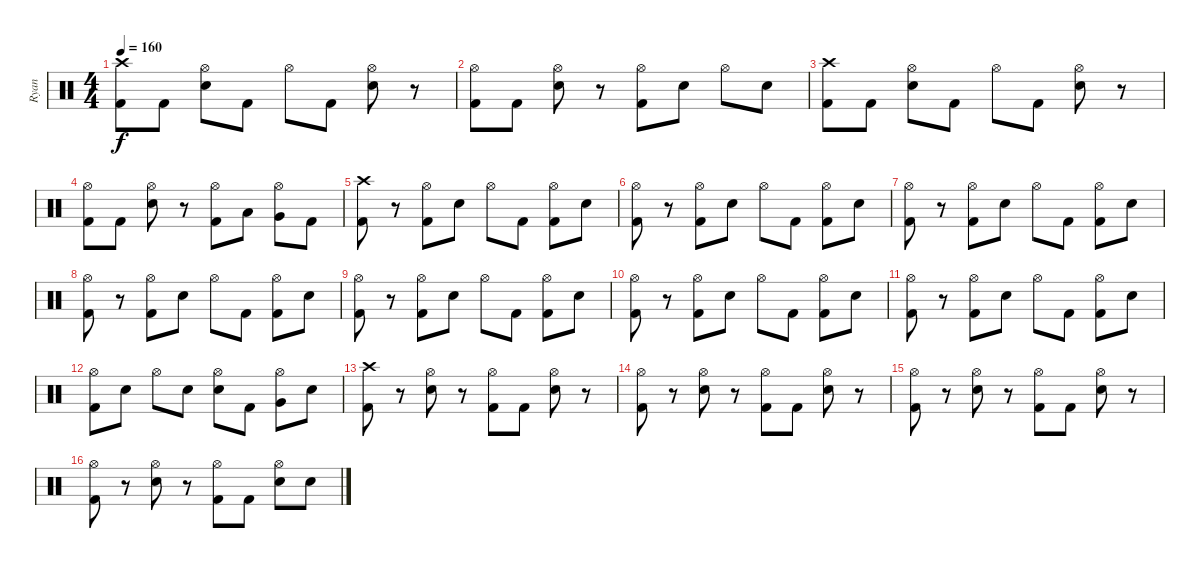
\track ("Ryan" "Ryan") {instrument percussion}
\staff {score}
\articulation defaults
\ts (4 4)
\tempo 160
\clef neutral
\ks c
("Crash high (hit)" "Kick (hit) 2").8{dy f} "Kick (hit) 2".8 ("Hi-Hat (open)" "Snare (hit) 2").8 "Kick (hit) 2".8 "Hi-Hat (open)".8 "Kick (hit) 2".8 ("Hi-Hat (open)" "Snare (hit) 2").8 r.8 |
("Hi-Hat (open)" "Kick (hit) 2").8 "Kick (hit) 2".8 ("Hi-Hat (open)" "Snare (hit) 2").8 r.8 ("Hi-Hat (open)" "Kick (hit) 2").8 "Snare (hit) 2".8 "Hi-Hat (open)".8 "Snare (hit) 2".8 |
("Crash high (hit)" "Kick (hit) 2").8 "Kick (hit) 2".8 ("Hi-Hat (open)" "Snare (hit) 2").8 "Kick (hit) 2".8 "Hi-Hat (open)".8 "Kick (hit) 2".8 ("Hi-Hat (open)" "Snare (hit) 2").8 r.8 |
("Hi-Hat (open)" "Kick (hit) 2").8 "Kick (hit) 2".8 ("Hi-Hat (open)" "Snare (hit) 2").8 r.8 ("Hi-Hat (open)" "Kick (hit) 2").8 "Low Tom (hit)".8 ("Hi-Hat (open)" "Very Low Tom (hit)").8 "Kick (hit) 2".8 |
("Crash high (hit)" "Kick (hit) 2").8 r.8 ("Hi-Hat (open)" "Kick (hit) 2").8 "Snare (hit) 2".8 "Hi-Hat (open)".8 "Kick (hit) 2".8 ("Hi-Hat (open)" "Kick (hit) 2").8 "Snare (hit) 2".8 |
("Hi-Hat (open)" "Kick (hit) 2").8 r.8 ("Hi-Hat (open)" "Kick (hit) 2").8 "Snare (hit) 2".8 "Hi-Hat (open)".8 "Kick (hit) 2".8 ("Hi-Hat (open)" "Kick (hit) 2").8 "Snare (hit) 2".8 |
("Hi-Hat (open)" "Kick (hit) 2").8 r.8 ("Hi-Hat (open)" "Kick (hit) 2").8 "Snare (hit) 2".8 "Hi-Hat (open)".8 "Kick (hit) 2".8 ("Hi-Hat (open)" "Kick (hit) 2").8 "Snare (hit) 2".8 |
("Hi-Hat (open)" "Kick (hit) 2").8 r.8 ("Hi-Hat (open)" "Kick (hit) 2").8 "Snare (hit) 2".8 "Hi-Hat (open)".8 "Kick (hit) 2".8 ("Hi-Hat (open)" "Kick (hit) 2").8 "Snare (hit) 2".8 |
("Hi-Hat (open)" "Kick (hit) 2").8 r.8 ("Hi-Hat (open)" "Kick (hit) 2").8 "Snare (hit) 2".8 "Hi-Hat (open)".8 "Kick (hit) 2".8 ("Hi-Hat (open)" "Kick (hit) 2").8 "Snare (hit) 2".8 |
("Hi-Hat (open)" "Kick (hit) 2").8 r.8 ("Hi-Hat (open)" "Kick (hit) 2").8 "Snare (hit) 2".8 "Hi-Hat (open)".8 "Kick (hit) 2".8 ("Hi-Hat (open)" "Kick (hit) 2").8 "Snare (hit) 2".8 |
("Hi-Hat (open)" "Kick (hit) 2").8 r.8 ("Hi-Hat (open)" "Kick (hit) 2").8 "Snare (hit) 2".8 "Hi-Hat (open)".8 "Kick (hit) 2".8 ("Hi-Hat (open)" "Kick (hit) 2").8 "Snare (hit) 2".8 |
("Hi-Hat (open)" "Kick (hit) 2").8 "Snare (hit) 2".8 "Hi-Hat (open)".8 "Snare (hit) 2".8 ("Hi-Hat (open)" "Snare (hit) 2").8 "Kick (hit) 2".8 ("Hi-Hat (open)" "Very Low Tom (hit)").8 "Snare (hit) 2".8 |
("Crash high (hit)" "Kick (hit) 2").8 r.8 ("Hi-Hat (open)" "Snare (hit) 2").8 r.8 ("Hi-Hat (open)" "Kick (hit) 2").8 "Kick (hit) 2".8 ("Hi-Hat (open)" "Snare (hit) 2").8 r.8 |
("Hi-Hat (open)" "Kick (hit) 2").8 r.8 ("Hi-Hat (open)" "Snare (hit) 2").8 r.8 ("Hi-Hat (open)" "Kick (hit) 2").8 "Kick (hit) 2".8 ("Hi-Hat (open)" "Snare (hit) 2").8 r.8 |
("Hi-Hat (open)" "Kick (hit) 2").8 r.8 ("Hi-Hat (open)" "Snare (hit) 2").8 r.8 ("Hi-Hat (open)" "Kick (hit) 2").8 "Kick (hit) 2".8 ("Hi-Hat (open)" "Snare (hit) 2").8 r.8 |
("Hi-Hat (open)" "Kick (hit) 2").8 r.8 ("Hi-Hat (open)" "Snare (hit) 2").8 r.8 ("Hi-Hat (open)" "Kick (hit) 2").8 "Kick (hit) 2".8 ("Hi-Hat (open)" "Snare (hit) 2").8 "Snare (hit) 2".8
